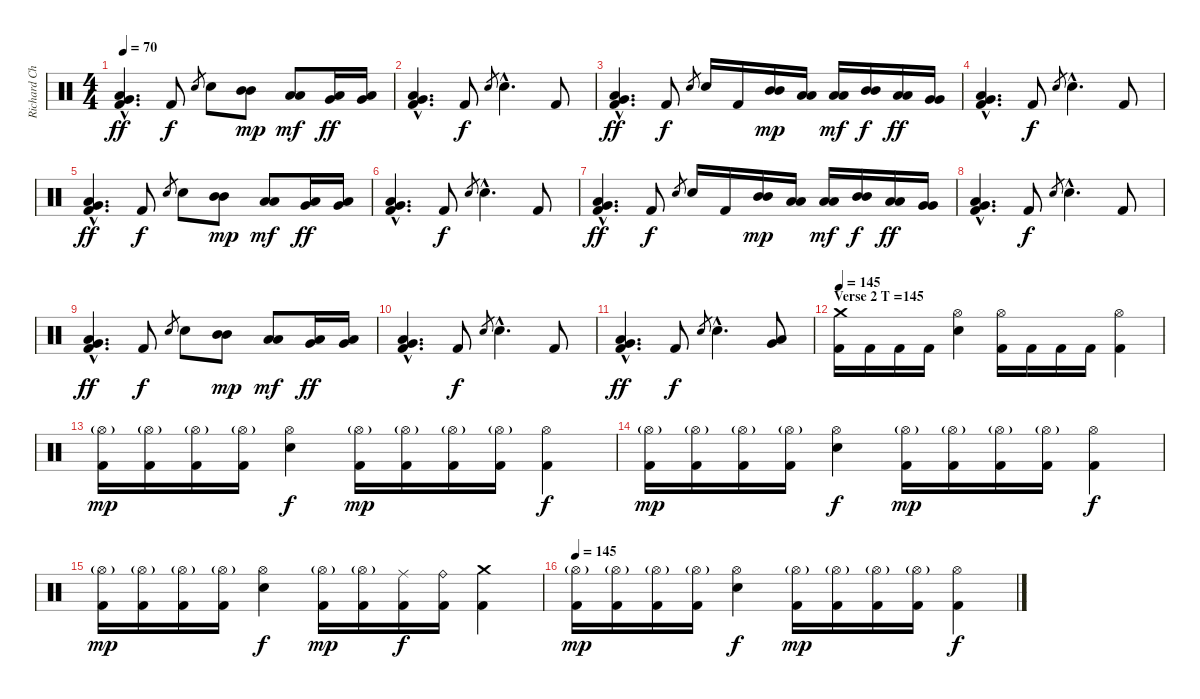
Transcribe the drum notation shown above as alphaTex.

\track ("Richard Christy" "Richard Ch") {instrument percussion}
\staff {score}
\articulation defaults
\ts (4 4)
\tempo 70
\clef neutral
\ks c
("Low Floor Tom (hit)"{hac} "Very Low Tom (hit)"{hac} "Kick (hit) 2"{hac}).4{d dy ff} "Kick (hit) 2".8{dy f} "Electric Snare (hit)".8{gr} "Electric Snare (hit)".8 ("Mid Tom (hit)" "Mid Tom (hit)").8{dy mp} ("Low Tom (hit)" "Low Tom (hit)").8{dy mf} ("Low Tom (hit)" "Very Low Tom (hit)").16{dy ff} ("Low Tom (hit)" "Very Low Tom (hit)").16 |
("Low Floor Tom (hit)"{hac} "Very Low Tom (hit)"{hac} "Kick (hit) 2"{hac}).4{d} "Kick (hit) 2".8{dy f} "Electric Snare (hit)".8{gr} "Electric Snare (hit)"{hac}.4{d} "Kick (hit) 2".8 |
("Low Floor Tom (hit)"{hac} "Very Low Tom (hit)"{hac} "Kick (hit) 2"{hac}).4{d dy ff} "Kick (hit) 2".8{dy f} "Electric Snare (hit)".8{gr} "Electric Snare (hit)".16 "Kick (hit) 2".16 ("Mid Tom (hit)" "Mid Tom (hit)").16{dy mp} ("Low Tom (hit)" "Low Tom (hit)").16 ("Low Tom (hit)" "Low Tom (hit)").16{dy mf} ("Mid Tom (hit)" "Mid Tom (hit)").16{dy f} ("Low Tom (hit)" "Low Tom (hit)").16{dy ff} ("Very Low Tom (hit)" "Very Low Tom (hit)").16 |
("Low Floor Tom (hit)"{hac} "Very Low Tom (hit)"{hac} "Kick (hit) 2"{hac}).4{d} "Kick (hit) 2".8{dy f} "Electric Snare (hit)".8{gr} "Electric Snare (hit)"{hac}.4{d} "Kick (hit) 2".8 |
("Low Floor Tom (hit)"{hac} "Very Low Tom (hit)"{hac} "Kick (hit) 2"{hac}).4{d dy ff} "Kick (hit) 2".8{dy f} "Electric Snare (hit)".8{gr} "Electric Snare (hit)".8 ("Mid Tom (hit)" "Mid Tom (hit)").8{dy mp} ("Low Tom (hit)" "Low Tom (hit)").8{dy mf} ("Low Tom (hit)" "Very Low Tom (hit)").16{dy ff} ("Low Tom (hit)" "Very Low Tom (hit)").16 |
("Low Floor Tom (hit)"{hac} "Very Low Tom (hit)"{hac} "Kick (hit) 2"{hac}).4{d} "Kick (hit) 2".8{dy f} "Electric Snare (hit)".8{gr} "Electric Snare (hit)"{hac}.4{d} "Kick (hit) 2".8 |
("Low Floor Tom (hit)"{hac} "Very Low Tom (hit)"{hac} "Kick (hit) 2"{hac}).4{d dy ff} "Kick (hit) 2".8{dy f} "Electric Snare (hit)".8{gr} "Electric Snare (hit)".16 "Kick (hit) 2".16 ("Mid Tom (hit)" "Mid Tom (hit)").16{dy mp} ("Low Tom (hit)" "Low Tom (hit)").16 ("Low Tom (hit)" "Low Tom (hit)").16{dy mf} ("Mid Tom (hit)" "Mid Tom (hit)").16{dy f} ("Low Tom (hit)" "Low Tom (hit)").16{dy ff} ("Very Low Tom (hit)" "Very Low Tom (hit)").16 |
("Low Floor Tom (hit)"{hac} "Very Low Tom (hit)"{hac} "Kick (hit) 2"{hac}).4{d} "Kick (hit) 2".8{dy f} "Electric Snare (hit)".8{gr} "Electric Snare (hit)"{hac}.4{d} "Kick (hit) 2".8 |
("Low Floor Tom (hit)"{hac} "Very Low Tom (hit)"{hac} "Kick (hit) 2"{hac}).4{d dy ff} "Kick (hit) 2".8{dy f} "Electric Snare (hit)".8{gr} "Electric Snare (hit)".8 ("Mid Tom (hit)" "Mid Tom (hit)").8{dy mp} ("Low Tom (hit)" "Low Tom (hit)").8{dy mf} ("Low Tom (hit)" "Very Low Tom (hit)").16{dy ff} ("Low Tom (hit)" "Very Low Tom (hit)").16 |
("Low Floor Tom (hit)"{hac} "Very Low Tom (hit)"{hac} "Kick (hit) 2"{hac}).4{d} "Kick (hit) 2".8{dy f} "Electric Snare (hit)".8{gr} "Electric Snare (hit)"{hac}.4{d} "Kick (hit) 2".8 |
("Low Floor Tom (hit)"{hac} "Very Low Tom (hit)"{hac} "Kick (hit) 2"{hac}).4{d dy ff} "Kick (hit) 2".8{dy f} "Electric Snare (hit)".8{gr} "Electric Snare (hit)"{hac}.4{d} ("Low Tom (hit)" "Very Low Tom (hit)").8 |
\section ("" "Verse 2 T =145")
\tempo 145
("Crash medium (hit)" "Kick (hit) 2").16 "Kick (hit) 2".16 "Kick (hit) 2".16 "Kick (hit) 2".16 ("Hi-Hat (open)" "Electric Snare (hit)").4 ("Hi-Hat (open)" "Kick (hit) 2").16 "Kick (hit) 2".16 "Kick (hit) 2".16 "Kick (hit) 2".16 ("Hi-Hat (open)" "Kick (hit) 2").4 |
("Hi-Hat (open)"{g} "Kick (hit) 2").16{dy mp} ("Hi-Hat (open)"{g} "Kick (hit) 2").16 ("Hi-Hat (open)"{g} "Kick (hit) 2").16 ("Hi-Hat (open)"{g} "Kick (hit) 2").16 ("Hi-Hat (open)" "Electric Snare (hit)").4{dy f} ("Hi-Hat (open)"{g} "Kick (hit) 2").16{dy mp} ("Hi-Hat (open)"{g} "Kick (hit) 2").16 ("Hi-Hat (open)"{g} "Kick (hit) 2").16 ("Hi-Hat (open)"{g} "Kick (hit) 2").16 ("Hi-Hat (open)" "Kick (hit) 2").4{dy f} |
("Hi-Hat (open)"{g} "Kick (hit) 2").16{dy mp} ("Hi-Hat (open)"{g} "Kick (hit) 2").16 ("Hi-Hat (open)"{g} "Kick (hit) 2").16 ("Hi-Hat (open)"{g} "Kick (hit) 2").16 ("Hi-Hat (open)" "Electric Snare (hit)").4{dy f} ("Hi-Hat (open)"{g} "Kick (hit) 2").16{dy mp} ("Hi-Hat (open)"{g} "Kick (hit) 2").16 ("Hi-Hat (open)"{g} "Kick (hit) 2").16 ("Hi-Hat (open)"{g} "Kick (hit) 2").16 ("Hi-Hat (open)" "Kick (hit) 2").4{dy f} |
("Hi-Hat (open)"{g} "Kick (hit) 2").16{dy mp} ("Hi-Hat (open)"{g} "Kick (hit) 2").16 ("Hi-Hat (open)"{g} "Kick (hit) 2").16 ("Hi-Hat (open)"{g} "Kick (hit) 2").16 ("Hi-Hat (open)" "Electric Snare (hit)").4{dy f} ("Hi-Hat (open)"{g} "Kick (hit) 2").16{dy mp} ("Hi-Hat (open)"{g} "Kick (hit) 2").16 ("Ride (middle)" "Kick (hit) 2").16{dy f} ("Ride (bell)" "Kick (hit) 2").16 ("Crash medium (hit)" "Kick (hit) 2").4 |
\tempo 145
("Hi-Hat (open)"{g} "Kick (hit) 2").16{dy mp} ("Hi-Hat (open)"{g} "Kick (hit) 2").16 ("Hi-Hat (open)"{g} "Kick (hit) 2").16 ("Hi-Hat (open)"{g} "Kick (hit) 2").16 ("Hi-Hat (open)" "Electric Snare (hit)").4{dy f} ("Hi-Hat (open)"{g} "Kick (hit) 2").16{dy mp} ("Hi-Hat (open)"{g} "Kick (hit) 2").16 ("Hi-Hat (open)"{g} "Kick (hit) 2").16 ("Hi-Hat (open)"{g} "Kick (hit) 2").16 ("Hi-Hat (open)" "Kick (hit) 2").4{dy f}
